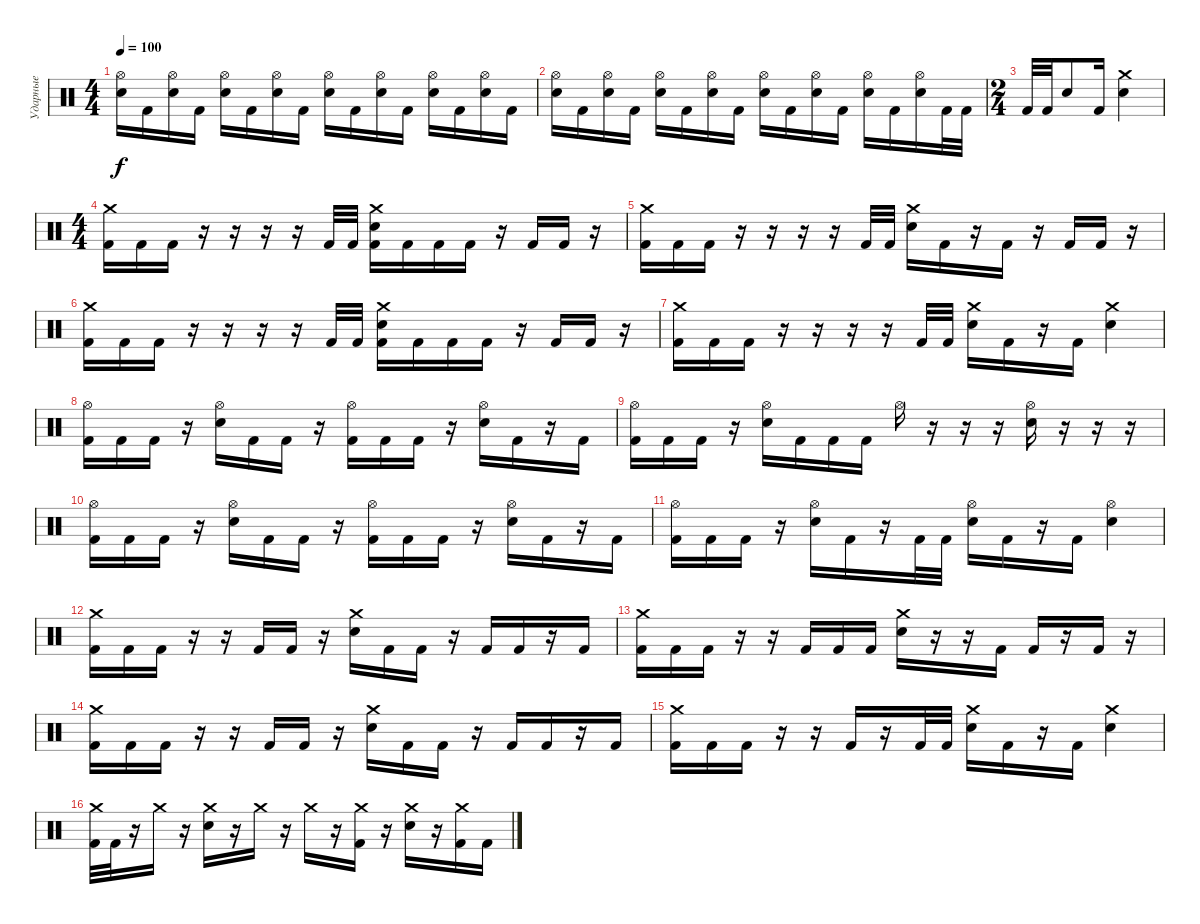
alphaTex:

\track ("Ударные" "Ударные") {instrument percussion}
\staff {score}
\articulation defaults
\ts (4 4)
\tempo 100
\clef neutral
\ks c
("Hi-Hat (open)" "Electric Snare (hit)").16{dy f} "Kick (hit) 2".16 ("Hi-Hat (open)" "Electric Snare (hit)").16 "Kick (hit) 2".16 ("Hi-Hat (open)" "Electric Snare (hit)").16 "Kick (hit) 2".16 ("Hi-Hat (open)" "Electric Snare (hit)").16 "Kick (hit) 2".16 ("Hi-Hat (open)" "Electric Snare (hit)").16 "Kick (hit) 2".16 ("Hi-Hat (open)" "Electric Snare (hit)").16 "Kick (hit) 2".16 ("Hi-Hat (open)" "Electric Snare (hit)").16 "Kick (hit) 2".16 ("Hi-Hat (open)" "Electric Snare (hit)").16 "Kick (hit) 2".16 |
("Hi-Hat (open)" "Electric Snare (hit)").16 "Kick (hit) 2".16 ("Hi-Hat (open)" "Electric Snare (hit)").16 "Kick (hit) 2".16 ("Hi-Hat (open)" "Electric Snare (hit)").16 "Kick (hit) 2".16 ("Hi-Hat (open)" "Electric Snare (hit)").16 "Kick (hit) 2".16 ("Hi-Hat (open)" "Electric Snare (hit)").16 "Kick (hit) 2".16 ("Hi-Hat (open)" "Electric Snare (hit)").16 "Kick (hit) 2".16 ("Hi-Hat (open)" "Electric Snare (hit)").16 "Kick (hit) 2".16 ("Hi-Hat (open)" "Electric Snare (hit)").16 "Kick (hit) 2".32 "Kick (hit) 2".32 |
\ts (2 4)
"Kick (hit) 2".32 "Kick (hit) 2".32 "Electric Snare (hit)".8 "Kick (hit) 2".16 ("Crash medium (hit)" "Electric Snare (hit)").4 |
\ts (4 4)
("Crash medium (hit)" "Kick (hit) 2").16 "Kick (hit) 2".16 "Kick (hit) 2".16 r.16 r.16 r.16 r.16 "Kick (hit) 2".32 "Kick (hit) 2".32 ("Crash medium (hit)" "Electric Snare (hit)" "Kick (hit) 2").16 "Kick (hit) 2".16 "Kick (hit) 2".16 "Kick (hit) 2".16 r.16 "Kick (hit) 2".16 "Kick (hit) 2".16 r.16 |
("Crash medium (hit)" "Kick (hit) 2").16 "Kick (hit) 2".16 "Kick (hit) 2".16 r.16 r.16 r.16 r.16 "Kick (hit) 2".32 "Kick (hit) 2".32 ("Crash medium (hit)" "Electric Snare (hit)").16 "Kick (hit) 2".16 r.16 "Kick (hit) 2".16 r.16 "Kick (hit) 2".16 "Kick (hit) 2".16 r.16 |
("Crash medium (hit)" "Kick (hit) 2").16 "Kick (hit) 2".16 "Kick (hit) 2".16 r.16 r.16 r.16 r.16 "Kick (hit) 2".32 "Kick (hit) 2".32 ("Crash medium (hit)" "Electric Snare (hit)" "Kick (hit) 2").16 "Kick (hit) 2".16 "Kick (hit) 2".16 "Kick (hit) 2".16 r.16 "Kick (hit) 2".16 "Kick (hit) 2".16 r.16 |
("Crash medium (hit)" "Kick (hit) 2").16 "Kick (hit) 2".16 "Kick (hit) 2".16 r.16 r.16 r.16 r.16 "Kick (hit) 2".32 "Kick (hit) 2".32 ("Crash medium (hit)" "Electric Snare (hit)").16 "Kick (hit) 2".16 r.16 "Kick (hit) 2".16 ("Crash medium (hit)" "Electric Snare (hit)").4 |
("Hi-Hat (open)" "Kick (hit) 2").16 "Kick (hit) 2".16 "Kick (hit) 2".16 r.16 ("Hi-Hat (open)" "Electric Snare (hit)").16 "Kick (hit) 2".16 "Kick (hit) 2".16 r.16 ("Hi-Hat (open)" "Kick (hit) 2").16 "Kick (hit) 2".16 "Kick (hit) 2".16 r.16 ("Hi-Hat (open)" "Electric Snare (hit)").16 "Kick (hit) 2".16 r.16 "Kick (hit) 2".16 |
("Hi-Hat (open)" "Kick (hit) 2").16 "Kick (hit) 2".16 "Kick (hit) 2".16 r.16 ("Hi-Hat (open)" "Electric Snare (hit)").16 "Kick (hit) 2".16 "Kick (hit) 2".16 "Kick (hit) 2".16 "Hi-Hat (open)".16 r.16 r.16 r.16 ("Hi-Hat (open)" "Electric Snare (hit)").16 r.16 r.16 r.16 |
("Hi-Hat (open)" "Kick (hit) 2").16 "Kick (hit) 2".16 "Kick (hit) 2".16 r.16 ("Hi-Hat (open)" "Electric Snare (hit)").16 "Kick (hit) 2".16 "Kick (hit) 2".16 r.16 ("Hi-Hat (open)" "Kick (hit) 2").16 "Kick (hit) 2".16 "Kick (hit) 2".16 r.16 ("Hi-Hat (open)" "Electric Snare (hit)").16 "Kick (hit) 2".16 r.16 "Kick (hit) 2".16 |
("Hi-Hat (open)" "Kick (hit) 2").16 "Kick (hit) 2".16 "Kick (hit) 2".16 r.16 ("Hi-Hat (open)" "Electric Snare (hit)").16 "Kick (hit) 2".16 r.16 "Kick (hit) 2".32 "Kick (hit) 2".32 ("Hi-Hat (open)" "Electric Snare (hit)").16 "Kick (hit) 2".16 r.16 "Kick (hit) 2".16 ("Hi-Hat (open)" "Electric Snare (hit)").4 |
("Crash medium (hit)" "Kick (hit) 2").16 "Kick (hit) 2".16 "Kick (hit) 2".16 r.16 r.16 "Kick (hit) 2".16 "Kick (hit) 2".16 r.16 ("Crash medium (hit)" "Electric Snare (hit)").16 "Kick (hit) 2".16 "Kick (hit) 2".16 r.16 "Kick (hit) 2".16 "Kick (hit) 2".16 r.16 "Kick (hit) 2".16 |
("Crash medium (hit)" "Kick (hit) 2").16 "Kick (hit) 2".16 "Kick (hit) 2".16 r.16 r.16 "Kick (hit) 2".16 "Kick (hit) 2".16 "Kick (hit) 2".16 ("Crash medium (hit)" "Electric Snare (hit)").16 r.16 r.16 "Kick (hit) 2".16 "Kick (hit) 2".16 r.16 "Kick (hit) 2".16 r.16 |
("Crash medium (hit)" "Kick (hit) 2").16 "Kick (hit) 2".16 "Kick (hit) 2".16 r.16 r.16 "Kick (hit) 2".16 "Kick (hit) 2".16 r.16 ("Crash medium (hit)" "Electric Snare (hit)").16 "Kick (hit) 2".16 "Kick (hit) 2".16 r.16 "Kick (hit) 2".16 "Kick (hit) 2".16 r.16 "Kick (hit) 2".16 |
("Crash medium (hit)" "Kick (hit) 2").16 "Kick (hit) 2".16 "Kick (hit) 2".16 r.16 r.16 "Kick (hit) 2".16 r.16 "Kick (hit) 2".32 "Kick (hit) 2".32 ("Crash medium (hit)" "Electric Snare (hit)").16 "Kick (hit) 2".16 r.16 "Kick (hit) 2".16 ("Crash medium (hit)" "Electric Snare (hit)").4 |
("Crash medium (hit)" "Kick (hit) 2").32 "Kick (hit) 2".32 r.16 "Crash medium (hit)".16 r.16 ("Crash medium (hit)" "Electric Snare (hit)").16 r.16 "Crash medium (hit)".16 r.16 "Crash medium (hit)".16 r.16 ("Crash medium (hit)" "Kick (hit) 2").16 r.16 ("Crash medium (hit)" "Electric Snare (hit)").16 r.16 ("Crash medium (hit)" "Kick (hit) 2").16 "Kick (hit) 2".16
